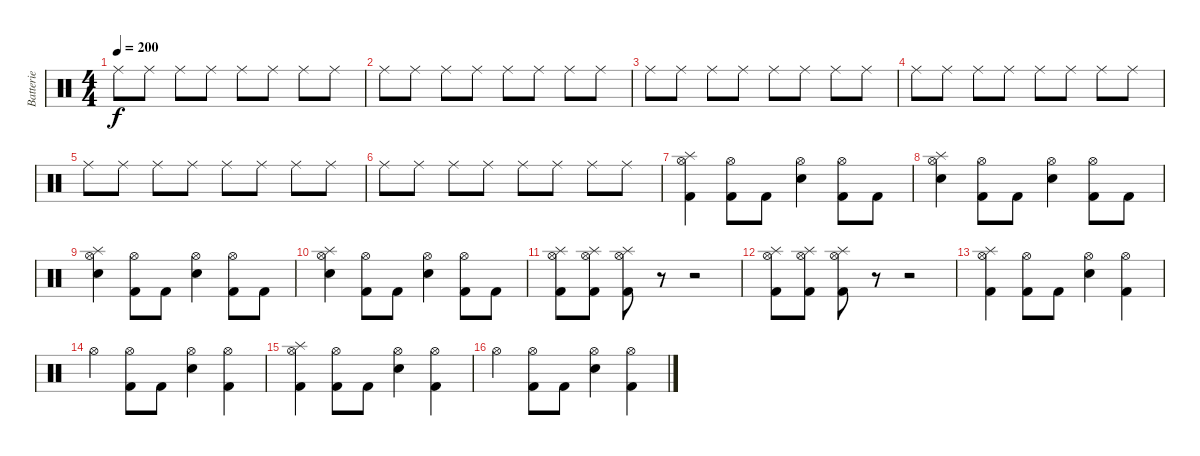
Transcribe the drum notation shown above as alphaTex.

\track ("Batterie" "Batterie") {instrument percussion}
\staff {score}
\articulation defaults
\ts (4 4)
\tempo 200
\clef neutral
\ks c "Ride (middle)".8{dy f} "Ride (middle)".8 "Ride (middle)".8 "Ride (middle)".8 "Ride (middle)".8 "Ride (middle)".8 "Ride (middle)".8 "Ride (middle)".8
|
"Ride (middle)".8 "Ride (middle)".8 "Ride (middle)".8 "Ride (middle)".8 "Ride (middle)".8 "Ride (middle)".8 "Ride (middle)".8 "Ride (middle)".8 |
"Ride (middle)".8 "Ride (middle)".8 "Ride (middle)".8 "Ride (middle)".8 "Ride (middle)".8 "Ride (middle)".8 "Ride (middle)".8 "Ride (middle)".8 |
"Ride (middle)".8 "Ride (middle)".8 "Ride (middle)".8 "Ride (middle)".8 "Ride (middle)".8 "Ride (middle)".8 "Ride (middle)".8 "Ride (middle)".8 |
"Ride (middle)".8 "Ride (middle)".8 "Ride (middle)".8 "Ride (middle)".8 "Ride (middle)".8 "Ride (middle)".8 "Ride (middle)".8 "Ride (middle)".8 |
"Ride (middle)".8 "Ride (middle)".8 "Ride (middle)".8 "Ride (middle)".8 "Ride (middle)".8 "Ride (middle)".8 "Ride (middle)".8 "Ride (middle)".8 |
("Splash (hit)" "Hi-Hat (open)" "Kick (hit) 2").4 ("Hi-Hat (open)" "Kick (hit) 2").8 "Kick (hit) 2".8 ("Hi-Hat (open)" "Snare (hit) 2").4 ("Hi-Hat (open)" "Kick (hit) 2").8 "Kick (hit) 2".8 |
("Splash (hit)" "Hi-Hat (open)" "Snare (hit) 2").4 ("Hi-Hat (open)" "Kick (hit) 2").8 "Kick (hit) 2".8 ("Hi-Hat (open)" "Snare (hit) 2").4 ("Hi-Hat (open)" "Kick (hit) 2").8 "Kick (hit) 2".8 |
("Splash (hit)" "Hi-Hat (open)" "Snare (hit) 2").4 ("Hi-Hat (open)" "Kick (hit) 2").8 "Kick (hit) 2".8 ("Hi-Hat (open)" "Snare (hit) 2").4 ("Hi-Hat (open)" "Kick (hit) 2").8 "Kick (hit) 2".8 |
("Splash (hit)" "Hi-Hat (open)" "Snare (hit) 2").4 ("Hi-Hat (open)" "Kick (hit) 2").8 "Kick (hit) 2".8 ("Hi-Hat (open)" "Snare (hit) 2").4 ("Hi-Hat (open)" "Kick (hit) 2").8 "Kick (hit) 2".8 |
("Splash (hit)" "Hi-Hat (open)" "Kick (hit) 2").8 ("Splash (hit)" "Hi-Hat (open)" "Kick (hit) 2").8 ("Splash (hit)" "Hi-Hat (open)" "Kick (hit) 2").8 r.8 r.2 |
("Splash (hit)" "Hi-Hat (open)" "Kick (hit) 2").8 ("Splash (hit)" "Hi-Hat (open)" "Kick (hit) 2").8 ("Splash (hit)" "Hi-Hat (open)" "Kick (hit) 2").8 r.8 r.2 |
("Splash (hit)" "Hi-Hat (open)" "Kick (hit) 2").4 ("Hi-Hat (open)" "Kick (hit) 2").8 "Kick (hit) 2".8 ("Hi-Hat (open)" "Snare (hit) 2").4 ("Hi-Hat (open)" "Kick (hit) 2").4 |
"Hi-Hat (open)".4 ("Hi-Hat (open)" "Kick (hit) 2").8 "Kick (hit) 2".8 ("Hi-Hat (open)" "Snare (hit) 2").4 ("Hi-Hat (open)" "Kick (hit) 2").4 |
("Splash (hit)" "Hi-Hat (open)" "Kick (hit) 2").4 ("Hi-Hat (open)" "Kick (hit) 2").8 "Kick (hit) 2".8 ("Hi-Hat (open)" "Snare (hit) 2").4 ("Hi-Hat (open)" "Kick (hit) 2").4 |
"Hi-Hat (open)".4 ("Hi-Hat (open)" "Kick (hit) 2").8 "Kick (hit) 2".8 ("Hi-Hat (open)" "Snare (hit) 2").4 ("Hi-Hat (open)" "Kick (hit) 2").4
